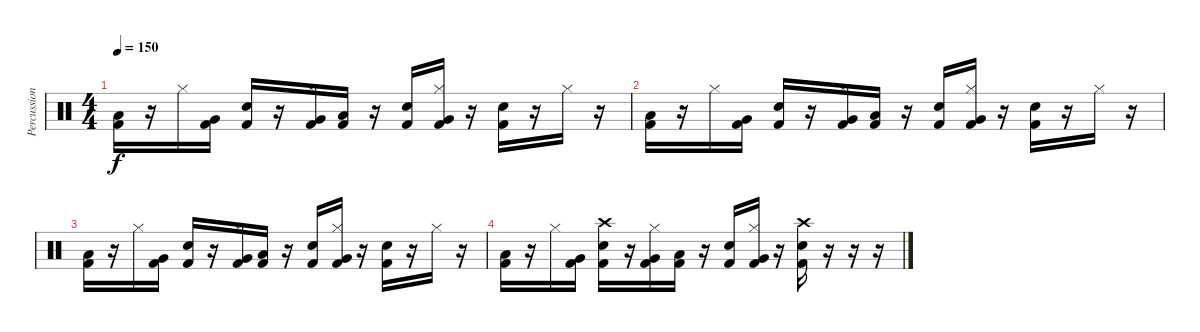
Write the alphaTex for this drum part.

\track ("Percussion" "Percussion") {instrument percussion}
\staff {score}
\articulation defaults
\ts (4 4)
\tempo 150
\clef neutral
\ks c
("Kick (hit) 2" "Low Floor Tom (hit)").16{dy f} r.16 "Hi-Hat (closed)".16 ("Kick (hit) 2" "Very Low Tom (hit)").16 ("Kick (hit) 2" "Electric Snare (hit)").16 r.16 ("Kick (hit) 2" "Very Low Tom (hit)" "Hi-Hat (closed)").16 ("Kick (hit) 2" "Low Floor Tom (hit)").16 r.16 ("Kick (hit) 2" "Electric Snare (hit)").16 ("Kick (hit) 2" "Very Low Tom (hit)" "Hi-Hat (closed)").16 r.16 ("Kick (hit) 2" "Electric Snare (hit)").16 r.16 "Hi-Hat (closed)".16 r.16 |
("Kick (hit) 2" "Low Floor Tom (hit)").16 r.16 "Hi-Hat (closed)".16 ("Kick (hit) 2" "Very Low Tom (hit)").16 ("Kick (hit) 2" "Electric Snare (hit)").16 r.16 ("Kick (hit) 2" "Very Low Tom (hit)" "Hi-Hat (closed)").16 ("Kick (hit) 2" "Low Floor Tom (hit)").16 r.16 ("Kick (hit) 2" "Electric Snare (hit)").16 ("Kick (hit) 2" "Very Low Tom (hit)" "Hi-Hat (closed)").16 r.16 ("Kick (hit) 2" "Electric Snare (hit)").16 r.16 "Hi-Hat (closed)".16 r.16 |
("Kick (hit) 2" "Low Floor Tom (hit)").16 r.16 "Hi-Hat (closed)".16 ("Kick (hit) 2" "Very Low Tom (hit)").16 ("Kick (hit) 2" "Electric Snare (hit)").16 r.16 ("Kick (hit) 2" "Very Low Tom (hit)" "Hi-Hat (closed)").16 ("Kick (hit) 2" "Low Floor Tom (hit)").16 r.16 ("Kick (hit) 2" "Electric Snare (hit)").16 ("Kick (hit) 2" "Very Low Tom (hit)" "Hi-Hat (closed)").16 r.16 ("Kick (hit) 2" "Electric Snare (hit)").16 r.16 "Hi-Hat (closed)".16 r.16 |
("Kick (hit) 2" "Low Floor Tom (hit)").16 r.16 "Hi-Hat (closed)".16 ("Kick (hit) 2" "Very Low Tom (hit)").16 ("Kick (hit) 2" "Electric Snare (hit)" "Crash high (hit)").16 r.16 ("Kick (hit) 2" "Very Low Tom (hit)" "Hi-Hat (closed)").16 ("Kick (hit) 2" "Low Floor Tom (hit)").16 r.16 ("Kick (hit) 2" "Electric Snare (hit)").16 ("Kick (hit) 2" "Very Low Tom (hit)" "Hi-Hat (closed)").16 r.16 ("Kick (hit) 2" "Electric Snare (hit)" "Crash high (hit)").16 r.16 r.16 r.16
